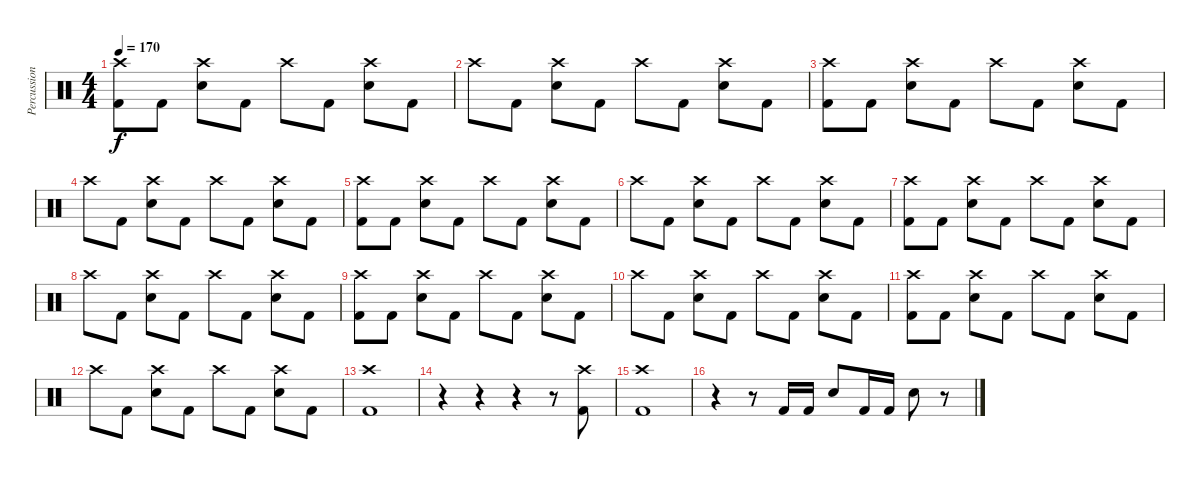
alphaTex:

\track ("Percussion" "Percussion") {instrument percussion}
\staff {score}
\articulation defaults
\ts (4 4)
\tempo 170
\clef neutral
\ks c
("Crash high (hit)" "Kick (hit) 2").8{dy f} "Kick (hit) 2".8 ("Crash high (hit)" "Electric Snare (hit)").8 "Kick (hit) 2".8 "Crash high (hit)".8 "Kick (hit) 2".8 ("Crash high (hit)" "Electric Snare (hit)").8 "Kick (hit) 2".8 |
"Crash high (hit)".8 "Kick (hit) 2".8 ("Crash high (hit)" "Electric Snare (hit)").8 "Kick (hit) 2".8 "Crash high (hit)".8 "Kick (hit) 2".8 ("Crash high (hit)" "Electric Snare (hit)").8 "Kick (hit) 2".8 |
("Crash high (hit)" "Kick (hit) 2").8 "Kick (hit) 2".8 ("Crash high (hit)" "Electric Snare (hit)").8 "Kick (hit) 2".8 "Crash high (hit)".8 "Kick (hit) 2".8 ("Crash high (hit)" "Electric Snare (hit)").8 "Kick (hit) 2".8 |
"Crash high (hit)".8 "Kick (hit) 2".8 ("Crash high (hit)" "Electric Snare (hit)").8 "Kick (hit) 2".8 "Crash high (hit)".8 "Kick (hit) 2".8 ("Crash high (hit)" "Electric Snare (hit)").8 "Kick (hit) 2".8 |
("Crash high (hit)" "Kick (hit) 2").8 "Kick (hit) 2".8 ("Crash high (hit)" "Electric Snare (hit)").8 "Kick (hit) 2".8 "Crash high (hit)".8 "Kick (hit) 2".8 ("Crash high (hit)" "Electric Snare (hit)").8 "Kick (hit) 2".8 |
"Crash high (hit)".8 "Kick (hit) 2".8 ("Crash high (hit)" "Electric Snare (hit)").8 "Kick (hit) 2".8 "Crash high (hit)".8 "Kick (hit) 2".8 ("Crash high (hit)" "Electric Snare (hit)").8 "Kick (hit) 2".8 |
("Crash high (hit)" "Kick (hit) 2").8 "Kick (hit) 2".8 ("Crash high (hit)" "Electric Snare (hit)").8 "Kick (hit) 2".8 "Crash high (hit)".8 "Kick (hit) 2".8 ("Crash high (hit)" "Electric Snare (hit)").8 "Kick (hit) 2".8 |
"Crash high (hit)".8 "Kick (hit) 2".8 ("Crash high (hit)" "Electric Snare (hit)").8 "Kick (hit) 2".8 "Crash high (hit)".8 "Kick (hit) 2".8 ("Crash high (hit)" "Electric Snare (hit)").8 "Kick (hit) 2".8 |
("Crash high (hit)" "Kick (hit) 2").8 "Kick (hit) 2".8 ("Crash high (hit)" "Electric Snare (hit)").8 "Kick (hit) 2".8 "Crash high (hit)".8 "Kick (hit) 2".8 ("Crash high (hit)" "Electric Snare (hit)").8 "Kick (hit) 2".8 |
"Crash high (hit)".8 "Kick (hit) 2".8 ("Crash high (hit)" "Electric Snare (hit)").8 "Kick (hit) 2".8 "Crash high (hit)".8 "Kick (hit) 2".8 ("Crash high (hit)" "Electric Snare (hit)").8 "Kick (hit) 2".8 |
("Crash high (hit)" "Kick (hit) 2").8 "Kick (hit) 2".8 ("Crash high (hit)" "Electric Snare (hit)").8 "Kick (hit) 2".8 "Crash high (hit)".8 "Kick (hit) 2".8 ("Crash high (hit)" "Electric Snare (hit)").8 "Kick (hit) 2".8 |
"Crash high (hit)".8 "Kick (hit) 2".8 ("Crash high (hit)" "Electric Snare (hit)").8 "Kick (hit) 2".8 "Crash high (hit)".8 "Kick (hit) 2".8 ("Crash high (hit)" "Electric Snare (hit)").8 "Kick (hit) 2".8 |
("Crash high (hit)" "Kick (hit) 2").1 |
r.4 r.4 r.4 r.8 ("Crash high (hit)" "Kick (hit) 2").8 |
("Crash high (hit)" "Kick (hit) 2").1 |
r.4 r.8 "Kick (hit) 2".16 "Kick (hit) 2".16 "Electric Snare (hit)".8 "Kick (hit) 2".16 "Kick (hit) 2".16 "Electric Snare (hit)".8 r.8
